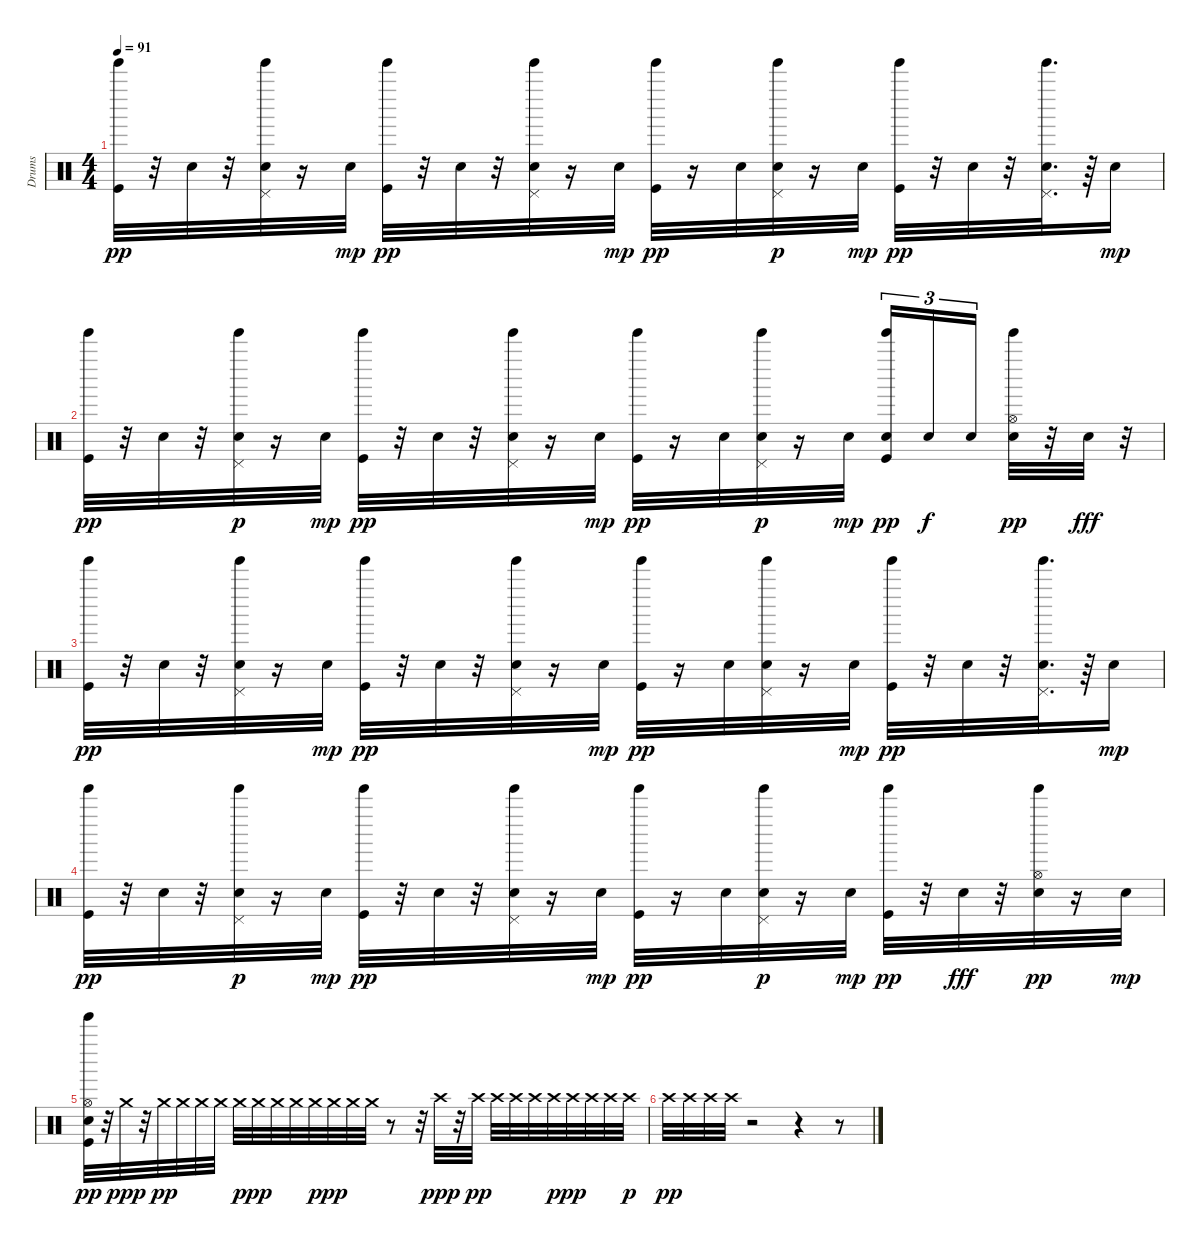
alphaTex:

\track ("Drums" "Drums") {instrument percussion}
\staff {score}
\articulation defaults
\ts (4 4)
\tempo 91
\clef neutral
\ks c
("Kick (hit)" "Tinkle Bell (hit)").32{dy pp} r.32 "Snare (hit) 2".32 r.32 ("Snare (hit) 2" "Pedal Hi-Hat (hit)" "Tinkle Bell (hit)").32 r.16 "Snare (hit) 2".32{dy mp} ("Kick (hit)" "Tinkle Bell (hit)").32{dy pp} r.32 "Snare (hit) 2".32 r.32 ("Snare (hit) 2" "Pedal Hi-Hat (hit)" "Tinkle Bell (hit)").32 r.16 "Snare (hit) 2".32{dy mp} ("Kick (hit)" "Tinkle Bell (hit)").32{dy pp} r.16 "Snare (hit) 2".32 ("Snare (hit) 2" "Pedal Hi-Hat (hit)" "Tinkle Bell (hit)").32{dy p} r.16 "Snare (hit) 2".32{dy mp} ("Kick (hit)" "Tinkle Bell (hit)").32{dy pp} r.32 "Snare (hit) 2".32 r.32 ("Snare (hit) 2" "Pedal Hi-Hat (hit)" "Tinkle Bell (hit)").32{d} r.64 "Snare (hit) 2".16{dy mp} |
("Kick (hit)" "Tinkle Bell (hit)").32{dy pp} r.32 "Snare (hit) 2".32 r.32 ("Snare (hit) 2" "Pedal Hi-Hat (hit)" "Tinkle Bell (hit)").32{dy p} r.16 "Snare (hit) 2".32{dy mp} ("Kick (hit)" "Tinkle Bell (hit)").32{dy pp} r.32 "Snare (hit) 2".32 r.32 ("Snare (hit) 2" "Pedal Hi-Hat (hit)" "Tinkle Bell (hit)").32 r.16 "Snare (hit) 2".32{dy mp} ("Kick (hit)" "Tinkle Bell (hit)").32{dy pp} r.16 "Snare (hit) 2".32 ("Snare (hit) 2" "Pedal Hi-Hat (hit)" "Tinkle Bell (hit)").32{dy p} r.16 "Snare (hit) 2".32{dy mp} ("Kick (hit)" "Snare (hit) 2" "Tinkle Bell (hit)").16{tu (3 2) dy pp} "Snare (hit) 2".16{tu (3 2) dy f} "Snare (hit) 2".16{tu (3 2) beam splitsecondary} ("Snare (hit) 2" "Hi-Hat (open)" "Tinkle Bell (hit)").32{dy pp} r.32 "Snare (hit) 2".32{dy fff} r.32 |
("Kick (hit)" "Tinkle Bell (hit)").32{dy pp} r.32 "Snare (hit) 2".32 r.32 ("Snare (hit) 2" "Pedal Hi-Hat (hit)" "Tinkle Bell (hit)").32 r.16 "Snare (hit) 2".32{dy mp} ("Kick (hit)" "Tinkle Bell (hit)").32{dy pp} r.32 "Snare (hit) 2".32 r.32 ("Snare (hit) 2" "Pedal Hi-Hat (hit)" "Tinkle Bell (hit)").32 r.16 "Snare (hit) 2".32{dy mp} ("Kick (hit)" "Tinkle Bell (hit)").32{dy pp} r.16 "Snare (hit) 2".32 ("Snare (hit) 2" "Pedal Hi-Hat (hit)" "Tinkle Bell (hit)").32 r.16 "Snare (hit) 2".32{dy mp} ("Kick (hit)" "Tinkle Bell (hit)").32{dy pp} r.32 "Snare (hit) 2".32 r.32 ("Snare (hit) 2" "Pedal Hi-Hat (hit)" "Tinkle Bell (hit)").32{d} r.64 "Snare (hit) 2".16{dy mp} |
("Kick (hit)" "Tinkle Bell (hit)").32{dy pp} r.32 "Snare (hit) 2".32 r.32 ("Snare (hit) 2" "Pedal Hi-Hat (hit)" "Tinkle Bell (hit)").32{dy p} r.16 "Snare (hit) 2".32{dy mp} ("Kick (hit)" "Tinkle Bell (hit)").32{dy pp} r.32 "Snare (hit) 2".32 r.32 ("Snare (hit) 2" "Pedal Hi-Hat (hit)" "Tinkle Bell (hit)").32 r.16 "Snare (hit) 2".32{dy mp} ("Kick (hit)" "Tinkle Bell (hit)").32{dy pp} r.16 "Snare (hit) 2".32 ("Snare (hit) 2" "Pedal Hi-Hat (hit)" "Tinkle Bell (hit)").32{dy p} r.16 "Snare (hit) 2".32{dy mp} ("Kick (hit)" "Tinkle Bell (hit)").32{dy pp} r.32 "Snare (hit) 2".32{dy fff} r.32 ("Snare (hit) 2" "Hi-Hat (open)" "Tinkle Bell (hit)").32{dy pp} r.16 "Snare (hit) 2".32{dy mp} |
("Kick (hit)" "Snare (hit) 2" "Hi-Hat (open)" "Tinkle Bell (hit)").32{dy pp} r.32 "Crash medium (hit)".32{dy ppp} r.32 "Crash medium (hit)".32{dy pp} "Crash medium (hit)".32 "Crash medium (hit)".32 "Crash medium (hit)".32 "Crash medium (hit)".32{dy p} "Crash medium (hit)".32{dy pp} "Crash medium (hit)".32 "Crash medium (hit)".32 "Crash medium (hit)".32{dy p} "Crash medium (hit)".32{dy pp} "Crash medium (hit)".32 "Crash medium (hit)".32 r.8 r.32 "Crash high (hit)".32{dy ppp} r.32 "Crash high (hit)".32{dy pp} "Crash high (hit)".32 "Crash high (hit)".32 "Crash high (hit)".32 "Crash high (hit)".32{dy p} "Crash high (hit)".32{dy pp} "Crash high (hit)".32 "Crash high (hit)".32 "Crash high (hit)".32{dy p} |
"Crash high (hit)".32{dy pp} "Crash high (hit)".32 "Crash high (hit)".32 "Crash high (hit)".32 r.2 r.4 r.8
